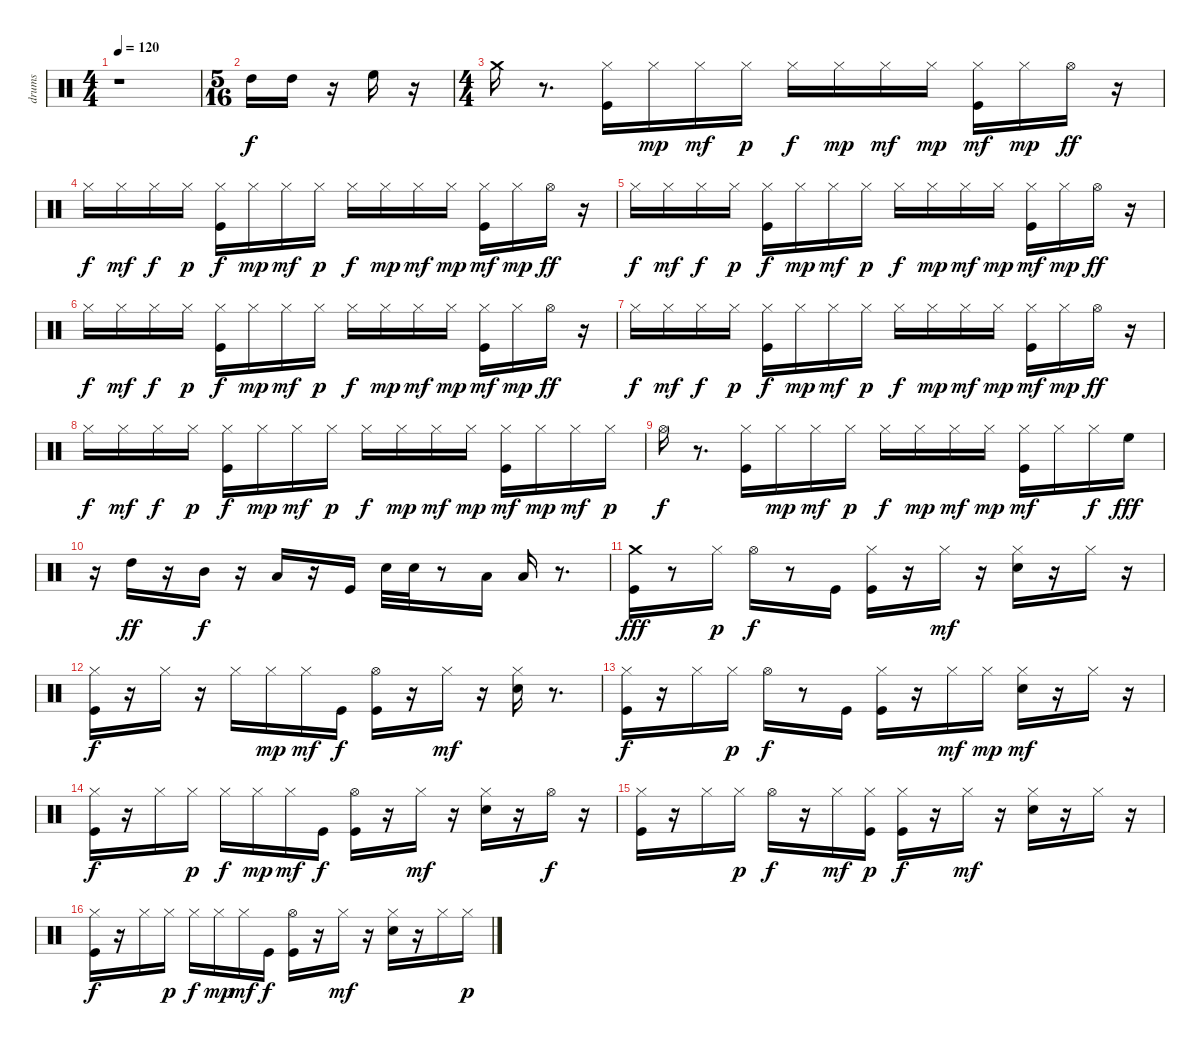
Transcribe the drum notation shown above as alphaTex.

\track ("drums" "drums") {instrument percussion}
\staff {score}
\articulation defaults
\ts (4 4)
\tempo 120
\clef neutral
\ks c
r.1{dy f} |
\ts (5 16)
"High Tom (hit)".16 "High Tom (hit)".16 r.16 "High Floor Tom (hit)".16 r.16 |
\ts (4 4)
"Crash medium (hit)".16 r.8{d} ("Kick (hit)" "Hi-Hat (closed)").16 "Hi-Hat (closed)".16{dy mp} "Hi-Hat (closed)".16{dy mf} "Hi-Hat (closed)".16{dy p} "Hi-Hat (closed)".16{dy f} "Hi-Hat (closed)".16{dy mp} "Hi-Hat (closed)".16{dy mf} "Hi-Hat (closed)".16{dy mp} ("Kick (hit)" "Hi-Hat (closed)").16{dy mf} "Hi-Hat (closed)".16{dy mp} "Hi-Hat (open)".16{dy ff} r.16 |
"Hi-Hat (closed)".16{dy f} "Hi-Hat (closed)".16{dy mf} "Hi-Hat (closed)".16{dy f} "Hi-Hat (closed)".16{dy p} ("Kick (hit)" "Hi-Hat (closed)").16{dy f} "Hi-Hat (closed)".16{dy mp} "Hi-Hat (closed)".16{dy mf} "Hi-Hat (closed)".16{dy p} "Hi-Hat (closed)".16{dy f} "Hi-Hat (closed)".16{dy mp} "Hi-Hat (closed)".16{dy mf} "Hi-Hat (closed)".16{dy mp} ("Kick (hit)" "Hi-Hat (closed)").16{dy mf} "Hi-Hat (closed)".16{dy mp} "Hi-Hat (open)".16{dy ff} r.16 |
"Hi-Hat (closed)".16{dy f} "Hi-Hat (closed)".16{dy mf} "Hi-Hat (closed)".16{dy f} "Hi-Hat (closed)".16{dy p} ("Kick (hit)" "Hi-Hat (closed)").16{dy f} "Hi-Hat (closed)".16{dy mp} "Hi-Hat (closed)".16{dy mf} "Hi-Hat (closed)".16{dy p} "Hi-Hat (closed)".16{dy f} "Hi-Hat (closed)".16{dy mp} "Hi-Hat (closed)".16{dy mf} "Hi-Hat (closed)".16{dy mp} ("Kick (hit)" "Hi-Hat (closed)").16{dy mf} "Hi-Hat (closed)".16{dy mp} "Hi-Hat (open)".16{dy ff} r.16 |
"Hi-Hat (closed)".16{dy f} "Hi-Hat (closed)".16{dy mf} "Hi-Hat (closed)".16{dy f} "Hi-Hat (closed)".16{dy p} ("Kick (hit)" "Hi-Hat (closed)").16{dy f} "Hi-Hat (closed)".16{dy mp} "Hi-Hat (closed)".16{dy mf} "Hi-Hat (closed)".16{dy p} "Hi-Hat (closed)".16{dy f} "Hi-Hat (closed)".16{dy mp} "Hi-Hat (closed)".16{dy mf} "Hi-Hat (closed)".16{dy mp} ("Kick (hit)" "Hi-Hat (closed)").16{dy mf} "Hi-Hat (closed)".16{dy mp} "Hi-Hat (open)".16{dy ff} r.16 |
"Hi-Hat (closed)".16{dy f} "Hi-Hat (closed)".16{dy mf} "Hi-Hat (closed)".16{dy f} "Hi-Hat (closed)".16{dy p} ("Kick (hit)" "Hi-Hat (closed)").16{dy f} "Hi-Hat (closed)".16{dy mp} "Hi-Hat (closed)".16{dy mf} "Hi-Hat (closed)".16{dy p} "Hi-Hat (closed)".16{dy f} "Hi-Hat (closed)".16{dy mp} "Hi-Hat (closed)".16{dy mf} "Hi-Hat (closed)".16{dy mp} ("Kick (hit)" "Hi-Hat (closed)").16{dy mf} "Hi-Hat (closed)".16{dy mp} "Hi-Hat (open)".16{dy ff} r.16 |
"Hi-Hat (closed)".16{dy f} "Hi-Hat (closed)".16{dy mf} "Hi-Hat (closed)".16{dy f} "Hi-Hat (closed)".16{dy p} ("Kick (hit)" "Hi-Hat (closed)").16{dy f} "Hi-Hat (closed)".16{dy mp} "Hi-Hat (closed)".16{dy mf} "Hi-Hat (closed)".16{dy p} "Hi-Hat (closed)".16{dy f} "Hi-Hat (closed)".16{dy mp} "Hi-Hat (closed)".16{dy mf} "Hi-Hat (closed)".16{dy mp} ("Kick (hit)" "Hi-Hat (closed)").16{dy mf} "Hi-Hat (closed)".16{dy mp} "Hi-Hat (closed)".16{dy mf} "Hi-Hat (closed)".16{dy p} |
"Hi-Hat (open)".16{dy f} r.8{d} ("Kick (hit)" "Hi-Hat (closed)").16 "Hi-Hat (closed)".16{dy mp} "Hi-Hat (closed)".16{dy mf} "Hi-Hat (closed)".16{dy p} "Hi-Hat (closed)".16{dy f} "Hi-Hat (closed)".16{dy mp} "Hi-Hat (closed)".16{dy mf} "Hi-Hat (closed)".16{dy mp} ("Kick (hit)" "Hi-Hat (closed)").16{dy mf} "Hi-Hat (closed)".16 "Hi-Hat (closed)".16{dy f} "High Floor Tom (hit)".16{dy fff} |
r.16 "High Tom (hit)".16{dy ff} r.16 "Mid Tom (hit)".16{dy f} r.16 "Low Tom (hit)".16 r.16 "Kick (hit)".16 "Electric Snare (hit)".32 "Electric Snare (hit)".32 r.8 "Low Tom (hit)".16 "Low Tom (hit)".16 r.8{d} |
("Kick (hit)" "Crash medium (hit)").16{dy fff} r.8 "Hi-Hat (closed)".16{dy p} "Hi-Hat (open)".16{dy f} r.8 "Kick (hit)".16 ("Kick (hit)" "Hi-Hat (closed)").16 r.16 "Hi-Hat (closed)".16{dy mf} r.16 ("Electric Snare (hit)" "Hi-Hat (closed)").16 r.16 "Hi-Hat (closed)".16 r.16 |
("Kick (hit)" "Hi-Hat (closed)").16{dy f} r.16 "Hi-Hat (closed)".16 r.16 "Hi-Hat (closed)".16 "Hi-Hat (closed)".16{dy mp} "Hi-Hat (closed)".16{dy mf} "Kick (hit)".16{dy f} ("Kick (hit)" "Hi-Hat (open)").16 r.16 "Hi-Hat (closed)".16{dy mf} r.16 ("Electric Snare (hit)" "Hi-Hat (closed)").16 r.8{d} |
("Kick (hit)" "Hi-Hat (closed)").16{dy f} r.16 "Hi-Hat (closed)".16 "Hi-Hat (closed)".16{dy p} "Hi-Hat (open)".16{dy f} r.8 "Kick (hit)".16 ("Kick (hit)" "Hi-Hat (closed)").16 r.16 "Hi-Hat (closed)".16{dy mf} "Hi-Hat (closed)".16{dy mp} ("Electric Snare (hit)" "Hi-Hat (closed)").16{dy mf} r.16 "Hi-Hat (closed)".16 r.16 |
("Kick (hit)" "Hi-Hat (closed)").16{dy f} r.16 "Hi-Hat (closed)".16 "Hi-Hat (closed)".16{dy p} "Hi-Hat (closed)".16{dy f} "Hi-Hat (closed)".16{dy mp} "Hi-Hat (closed)".16{dy mf} "Kick (hit)".16{dy f} ("Kick (hit)" "Hi-Hat (open)").16 r.16 "Hi-Hat (closed)".16{dy mf} r.16 ("Electric Snare (hit)" "Hi-Hat (closed)").16 r.16 "Hi-Hat (open)".16{dy f} r.16 |
("Kick (hit)" "Hi-Hat (closed)").16 r.16 "Hi-Hat (closed)".16 "Hi-Hat (closed)".16{dy p} "Hi-Hat (open)".16{dy f} r.16 "Hi-Hat (closed)".16{dy mf} ("Kick (hit)" "Hi-Hat (closed)").16{dy p} ("Kick (hit)" "Hi-Hat (closed)").16{dy f} r.16 "Hi-Hat (closed)".16{dy mf} r.16 ("Electric Snare (hit)" "Hi-Hat (closed)").16 r.16 "Hi-Hat (closed)".16 r.16 |
("Kick (hit)" "Hi-Hat (closed)").16{dy f} r.16 "Hi-Hat (closed)".16 "Hi-Hat (closed)".16{dy p} "Hi-Hat (closed)".16{dy f} "Hi-Hat (closed)".16{dy mp} "Hi-Hat (closed)".16{dy mf} "Kick (hit)".16{dy f} ("Kick (hit)" "Hi-Hat (open)").16 r.16 "Hi-Hat (closed)".16{dy mf} r.16 ("Electric Snare (hit)" "Hi-Hat (closed)").16 r.16 "Hi-Hat (closed)".16 "Hi-Hat (closed)".16{dy p}
